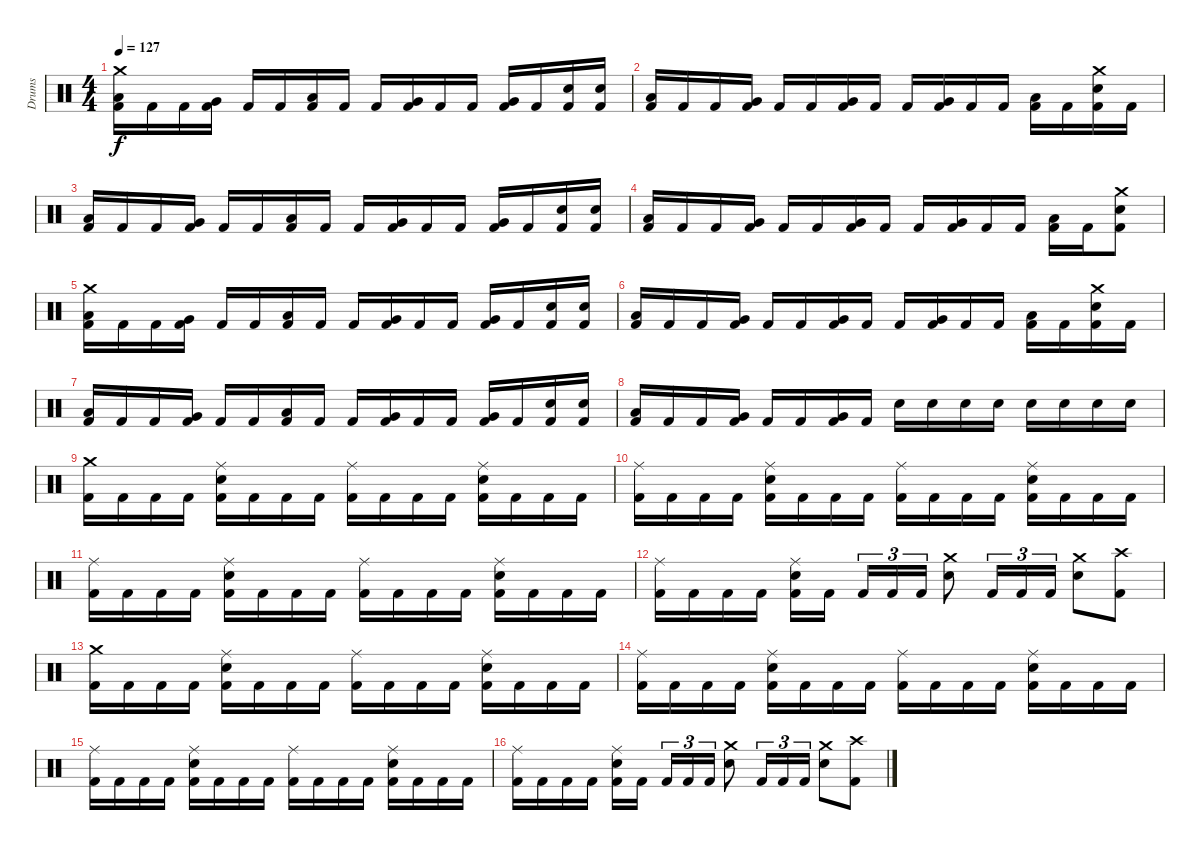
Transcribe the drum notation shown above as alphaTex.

\track ("Drums" "Drums") {instrument percussion}
\staff {score}
\articulation defaults
\ts (4 4)
\tempo 127
\clef neutral
\ks c
("Crash medium (hit)" "Low Tom (hit)" "Kick (hit) 2").16{dy f} "Kick (hit) 2".16 "Kick (hit) 2".16 ("Very Low Tom (hit)" "Kick (hit) 2").16 "Kick (hit) 2".16 "Kick (hit) 2".16 ("Low Tom (hit)" "Kick (hit) 2").16 "Kick (hit) 2".16 "Kick (hit) 2".16 ("Very Low Tom (hit)" "Kick (hit) 2").16 "Kick (hit) 2".16 "Kick (hit) 2".16 ("Very Low Tom (hit)" "Kick (hit) 2").16 "Kick (hit) 2".16 ("Electric Snare (hit)" "Kick (hit) 2").16 ("Electric Snare (hit)" "Kick (hit) 2").16 |
("Low Tom (hit)" "Kick (hit) 2").16 "Kick (hit) 2".16 "Kick (hit) 2".16 ("Very Low Tom (hit)" "Kick (hit) 2").16 "Kick (hit) 2".16 "Kick (hit) 2".16 ("Very Low Tom (hit)" "Kick (hit) 2").16 "Kick (hit) 2".16 "Kick (hit) 2".16 ("Very Low Tom (hit)" "Kick (hit) 2").16 "Kick (hit) 2".16 "Kick (hit) 2".16 ("Low Tom (hit)" "Kick (hit) 2").16 "Kick (hit) 2".16 ("Crash medium (hit)" "Electric Snare (hit)" "Kick (hit) 2").16 "Kick (hit) 2".16 |
("Low Tom (hit)" "Kick (hit) 2").16 "Kick (hit) 2".16 "Kick (hit) 2".16 ("Very Low Tom (hit)" "Kick (hit) 2").16 "Kick (hit) 2".16 "Kick (hit) 2".16 ("Low Tom (hit)" "Kick (hit) 2").16 "Kick (hit) 2".16 "Kick (hit) 2".16 ("Very Low Tom (hit)" "Kick (hit) 2").16 "Kick (hit) 2".16 "Kick (hit) 2".16 ("Very Low Tom (hit)" "Kick (hit) 2").16 "Kick (hit) 2".16 ("Electric Snare (hit)" "Kick (hit) 2").16 ("Electric Snare (hit)" "Kick (hit) 2").16 |
("Low Tom (hit)" "Kick (hit) 2").16 "Kick (hit) 2".16 "Kick (hit) 2".16 ("Very Low Tom (hit)" "Kick (hit) 2").16 "Kick (hit) 2".16 "Kick (hit) 2".16 ("Very Low Tom (hit)" "Kick (hit) 2").16 "Kick (hit) 2".16 "Kick (hit) 2".16 ("Very Low Tom (hit)" "Kick (hit) 2").16 "Kick (hit) 2".16 "Kick (hit) 2".16 ("Low Tom (hit)" "Kick (hit) 2").16 "Kick (hit) 2".16 ("Crash medium (hit)" "Electric Snare (hit)" "Kick (hit) 2").8 |
("Crash medium (hit)" "Low Tom (hit)" "Kick (hit) 2").16 "Kick (hit) 2".16 "Kick (hit) 2".16 ("Very Low Tom (hit)" "Kick (hit) 2").16 "Kick (hit) 2".16 "Kick (hit) 2".16 ("Low Tom (hit)" "Kick (hit) 2").16 "Kick (hit) 2".16 "Kick (hit) 2".16 ("Very Low Tom (hit)" "Kick (hit) 2").16 "Kick (hit) 2".16 "Kick (hit) 2".16 ("Very Low Tom (hit)" "Kick (hit) 2").16 "Kick (hit) 2".16 ("Electric Snare (hit)" "Kick (hit) 2").16 ("Electric Snare (hit)" "Kick (hit) 2").16 |
("Low Tom (hit)" "Kick (hit) 2").16 "Kick (hit) 2".16 "Kick (hit) 2".16 ("Very Low Tom (hit)" "Kick (hit) 2").16 "Kick (hit) 2".16 "Kick (hit) 2".16 ("Very Low Tom (hit)" "Kick (hit) 2").16 "Kick (hit) 2".16 "Kick (hit) 2".16 ("Very Low Tom (hit)" "Kick (hit) 2").16 "Kick (hit) 2".16 "Kick (hit) 2".16 ("Low Tom (hit)" "Kick (hit) 2").16 "Kick (hit) 2".16 ("Crash medium (hit)" "Electric Snare (hit)" "Kick (hit) 2").16 "Kick (hit) 2".16 |
("Low Tom (hit)" "Kick (hit) 2").16 "Kick (hit) 2".16 "Kick (hit) 2".16 ("Very Low Tom (hit)" "Kick (hit) 2").16 "Kick (hit) 2".16 "Kick (hit) 2".16 ("Low Tom (hit)" "Kick (hit) 2").16 "Kick (hit) 2".16 "Kick (hit) 2".16 ("Very Low Tom (hit)" "Kick (hit) 2").16 "Kick (hit) 2".16 "Kick (hit) 2".16 ("Very Low Tom (hit)" "Kick (hit) 2").16 "Kick (hit) 2".16 ("Electric Snare (hit)" "Kick (hit) 2").16 ("Electric Snare (hit)" "Kick (hit) 2").16 |
("Low Tom (hit)" "Kick (hit) 2").16 "Kick (hit) 2".16 "Kick (hit) 2".16 ("Very Low Tom (hit)" "Kick (hit) 2").16 "Kick (hit) 2".16 "Kick (hit) 2".16 ("Very Low Tom (hit)" "Kick (hit) 2").16 "Kick (hit) 2".16 "Electric Snare (hit)".16 "Electric Snare (hit)".16 "Electric Snare (hit)".16 "Electric Snare (hit)".16 "Electric Snare (hit)".16 "Electric Snare (hit)".16 "Electric Snare (hit)".16 "Electric Snare (hit)".16 |
\section ("" "")
("Crash medium (hit)" "Kick (hit) 2").16 "Kick (hit) 2".16 "Kick (hit) 2".16 "Kick (hit) 2".16 ("Ride (middle)" "Electric Snare (hit)" "Kick (hit) 2").16 "Kick (hit) 2".16 "Kick (hit) 2".16 "Kick (hit) 2".16 ("Ride (middle)" "Kick (hit) 2").16 "Kick (hit) 2".16 "Kick (hit) 2".16 "Kick (hit) 2".16 ("Ride (middle)" "Electric Snare (hit)" "Kick (hit) 2").16 "Kick (hit) 2".16 "Kick (hit) 2".16 "Kick (hit) 2".16 |
("Ride (middle)" "Kick (hit) 2").16 "Kick (hit) 2".16 "Kick (hit) 2".16 "Kick (hit) 2".16 ("Ride (middle)" "Electric Snare (hit)" "Kick (hit) 2").16 "Kick (hit) 2".16 "Kick (hit) 2".16 "Kick (hit) 2".16 ("Ride (middle)" "Kick (hit) 2").16 "Kick (hit) 2".16 "Kick (hit) 2".16 "Kick (hit) 2".16 ("Ride (middle)" "Electric Snare (hit)" "Kick (hit) 2").16 "Kick (hit) 2".16 "Kick (hit) 2".16 "Kick (hit) 2".16 |
("Ride (middle)" "Kick (hit) 2").16 "Kick (hit) 2".16 "Kick (hit) 2".16 "Kick (hit) 2".16 ("Ride (middle)" "Electric Snare (hit)" "Kick (hit) 2").16 "Kick (hit) 2".16 "Kick (hit) 2".16 "Kick (hit) 2".16 ("Ride (middle)" "Kick (hit) 2").16 "Kick (hit) 2".16 "Kick (hit) 2".16 "Kick (hit) 2".16 ("Ride (middle)" "Electric Snare (hit)" "Kick (hit) 2").16 "Kick (hit) 2".16 "Kick (hit) 2".16 "Kick (hit) 2".16 |
("Ride (middle)" "Kick (hit) 2").16 "Kick (hit) 2".16 "Kick (hit) 2".16 "Kick (hit) 2".16 ("Ride (middle)" "Electric Snare (hit)" "Kick (hit) 2").16 "Kick (hit) 2".16 "Kick (hit) 2".16{tu (3 2)} "Kick (hit) 2".16{tu (3 2)} "Kick (hit) 2".16{tu (3 2)} ("Crash medium (hit)" "Electric Snare (hit)").8 "Kick (hit) 2".16{tu (3 2)} "Kick (hit) 2".16{tu (3 2)} "Kick (hit) 2".16{tu (3 2)} ("Crash medium (hit)" "Electric Snare (hit)").8 ("Crash high (hit)" "Kick (hit) 2").8 |
("Crash medium (hit)" "Kick (hit) 2").16 "Kick (hit) 2".16 "Kick (hit) 2".16 "Kick (hit) 2".16 ("Ride (middle)" "Electric Snare (hit)" "Kick (hit) 2").16 "Kick (hit) 2".16 "Kick (hit) 2".16 "Kick (hit) 2".16 ("Ride (middle)" "Kick (hit) 2").16 "Kick (hit) 2".16 "Kick (hit) 2".16 "Kick (hit) 2".16 ("Ride (middle)" "Electric Snare (hit)" "Kick (hit) 2").16 "Kick (hit) 2".16 "Kick (hit) 2".16 "Kick (hit) 2".16 |
("Ride (middle)" "Kick (hit) 2").16 "Kick (hit) 2".16 "Kick (hit) 2".16 "Kick (hit) 2".16 ("Ride (middle)" "Electric Snare (hit)" "Kick (hit) 2").16 "Kick (hit) 2".16 "Kick (hit) 2".16 "Kick (hit) 2".16 ("Ride (middle)" "Kick (hit) 2").16 "Kick (hit) 2".16 "Kick (hit) 2".16 "Kick (hit) 2".16 ("Ride (middle)" "Electric Snare (hit)" "Kick (hit) 2").16 "Kick (hit) 2".16 "Kick (hit) 2".16 "Kick (hit) 2".16 |
("Ride (middle)" "Kick (hit) 2").16 "Kick (hit) 2".16 "Kick (hit) 2".16 "Kick (hit) 2".16 ("Ride (middle)" "Electric Snare (hit)" "Kick (hit) 2").16 "Kick (hit) 2".16 "Kick (hit) 2".16 "Kick (hit) 2".16 ("Ride (middle)" "Kick (hit) 2").16 "Kick (hit) 2".16 "Kick (hit) 2".16 "Kick (hit) 2".16 ("Ride (middle)" "Electric Snare (hit)" "Kick (hit) 2").16 "Kick (hit) 2".16 "Kick (hit) 2".16 "Kick (hit) 2".16 |
("Ride (middle)" "Kick (hit) 2").16 "Kick (hit) 2".16 "Kick (hit) 2".16 "Kick (hit) 2".16 ("Ride (middle)" "Electric Snare (hit)" "Kick (hit) 2").16 "Kick (hit) 2".16 "Kick (hit) 2".16{tu (3 2)} "Kick (hit) 2".16{tu (3 2)} "Kick (hit) 2".16{tu (3 2)} ("Crash medium (hit)" "Electric Snare (hit)").8 "Kick (hit) 2".16{tu (3 2)} "Kick (hit) 2".16{tu (3 2)} "Kick (hit) 2".16{tu (3 2)} ("Crash medium (hit)" "Electric Snare (hit)").8 ("Crash high (hit)" "Kick (hit) 2").8
